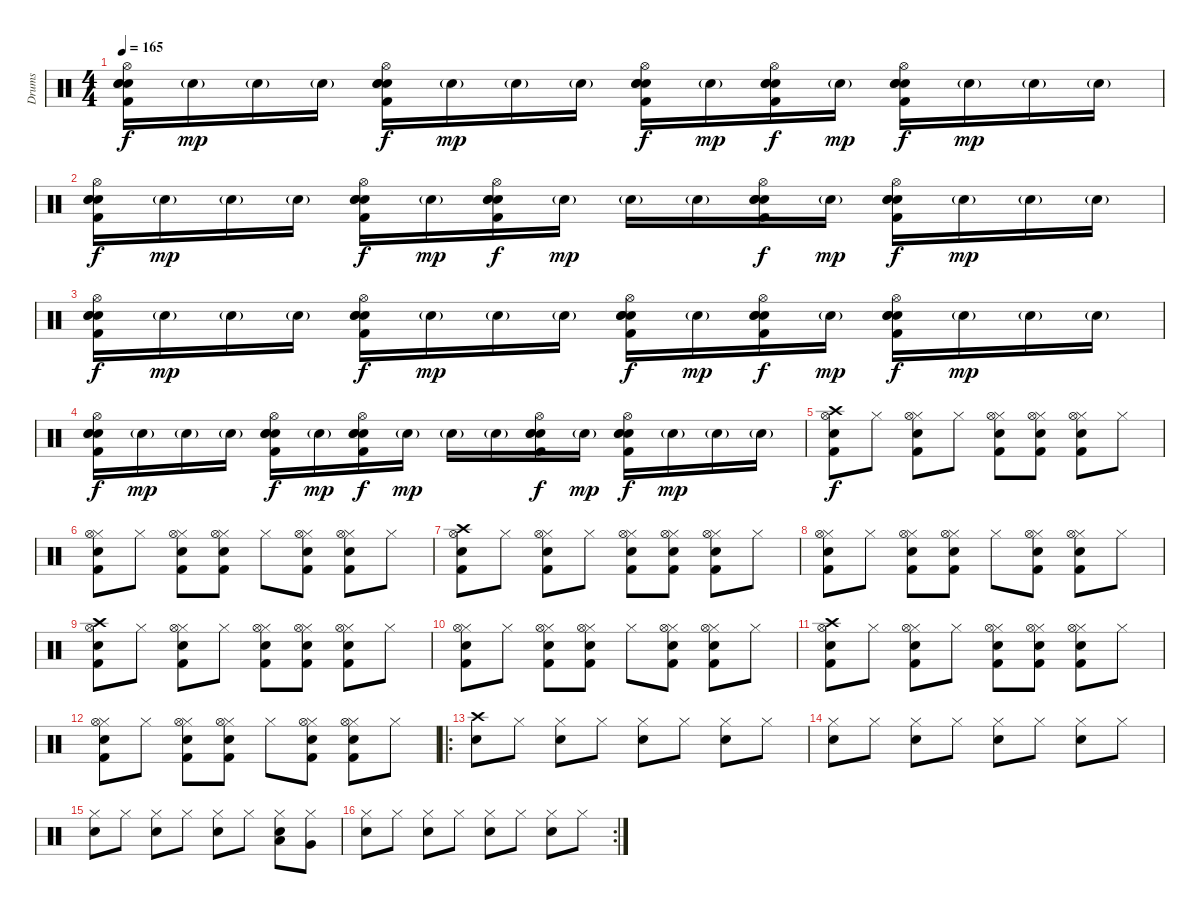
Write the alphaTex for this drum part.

\track ("Drums" "Drums") {instrument percussion}
\staff {score}
\articulation defaults
\ts (4 4)
\tempo 165
\clef neutral
\ks c
("Electric Snare (hit)" "Electric Snare (hit)" "Kick (hit) 2" "Snare (hit) 2" "Hi-Hat (open)").16{dy f} "Electric Snare (hit)"{g}.16{dy mp} "Electric Snare (hit)"{g}.16 "Electric Snare (hit)"{g}.16 ("Electric Snare (hit)" "Electric Snare (hit)" "Kick (hit) 2" "Snare (hit) 2" "Hi-Hat (open)").16{dy f} "Electric Snare (hit)"{g}.16{dy mp} "Electric Snare (hit)"{g}.16 "Electric Snare (hit)"{g}.16 ("Electric Snare (hit)" "Electric Snare (hit)" "Kick (hit) 2" "Snare (hit) 2" "Hi-Hat (open)").16{dy f} "Electric Snare (hit)"{g}.16{dy mp} ("Electric Snare (hit)" "Electric Snare (hit)" "Kick (hit) 2" "Snare (hit) 2" "Hi-Hat (open)").16{dy f} "Electric Snare (hit)"{g}.16{dy mp} ("Electric Snare (hit)" "Electric Snare (hit)" "Kick (hit) 2" "Snare (hit) 2" "Hi-Hat (open)").16{dy f} "Electric Snare (hit)"{g}.16{dy mp} "Electric Snare (hit)"{g}.16 "Electric Snare (hit)"{g}.16 |
("Electric Snare (hit)" "Electric Snare (hit)" "Kick (hit) 2" "Snare (hit) 2" "Hi-Hat (open)").16{dy f} "Electric Snare (hit)"{g}.16{dy mp} "Electric Snare (hit)"{g}.16 "Electric Snare (hit)"{g}.16 ("Electric Snare (hit)" "Electric Snare (hit)" "Kick (hit) 2" "Snare (hit) 2" "Hi-Hat (open)").16{dy f} "Electric Snare (hit)"{g}.16{dy mp} ("Electric Snare (hit)" "Electric Snare (hit)" "Kick (hit) 2" "Snare (hit) 2" "Hi-Hat (open)").16{dy f} "Electric Snare (hit)"{g}.16{dy mp} "Electric Snare (hit)"{g}.16 "Electric Snare (hit)"{g}.16 ("Electric Snare (hit)" "Electric Snare (hit)" "Kick (hit) 2" "Snare (hit) 2" "Hi-Hat (open)").16{dy f} "Electric Snare (hit)"{g}.16{dy mp} ("Electric Snare (hit)" "Electric Snare (hit)" "Kick (hit) 2" "Snare (hit) 2" "Hi-Hat (open)").16{dy f} "Electric Snare (hit)"{g}.16{dy mp} "Electric Snare (hit)"{g}.16 "Electric Snare (hit)"{g}.16 |
("Electric Snare (hit)" "Electric Snare (hit)" "Kick (hit) 2" "Snare (hit) 2" "Hi-Hat (open)").16{dy f} "Electric Snare (hit)"{g}.16{dy mp} "Electric Snare (hit)"{g}.16 "Electric Snare (hit)"{g}.16 ("Electric Snare (hit)" "Electric Snare (hit)" "Kick (hit) 2" "Snare (hit) 2" "Hi-Hat (open)").16{dy f} "Electric Snare (hit)"{g}.16{dy mp} "Electric Snare (hit)"{g}.16 "Electric Snare (hit)"{g}.16 ("Electric Snare (hit)" "Electric Snare (hit)" "Kick (hit) 2" "Snare (hit) 2" "Hi-Hat (open)").16{dy f} "Electric Snare (hit)"{g}.16{dy mp} ("Electric Snare (hit)" "Electric Snare (hit)" "Kick (hit) 2" "Snare (hit) 2" "Hi-Hat (open)").16{dy f} "Electric Snare (hit)"{g}.16{dy mp} ("Electric Snare (hit)" "Electric Snare (hit)" "Kick (hit) 2" "Snare (hit) 2" "Hi-Hat (open)").16{dy f} "Electric Snare (hit)"{g}.16{dy mp} "Electric Snare (hit)"{g}.16 "Electric Snare (hit)"{g}.16 |
("Electric Snare (hit)" "Electric Snare (hit)" "Kick (hit) 2" "Snare (hit) 2" "Hi-Hat (open)").16{dy f} "Electric Snare (hit)"{g}.16{dy mp} "Electric Snare (hit)"{g}.16 "Electric Snare (hit)"{g}.16 ("Electric Snare (hit)" "Electric Snare (hit)" "Kick (hit) 2" "Snare (hit) 2" "Hi-Hat (open)").16{dy f} "Electric Snare (hit)"{g}.16{dy mp} ("Electric Snare (hit)" "Electric Snare (hit)" "Kick (hit) 2" "Snare (hit) 2" "Hi-Hat (open)").16{dy f} "Electric Snare (hit)"{g}.16{dy mp} "Electric Snare (hit)"{g}.16 "Electric Snare (hit)"{g}.16 ("Electric Snare (hit)" "Electric Snare (hit)" "Kick (hit) 2" "Snare (hit) 2" "Hi-Hat (open)").16{dy f} "Electric Snare (hit)"{g}.16{dy mp} ("Electric Snare (hit)" "Electric Snare (hit)" "Kick (hit) 2" "Snare (hit) 2" "Hi-Hat (open)").16{dy f} "Electric Snare (hit)"{g}.16{dy mp} "Electric Snare (hit)"{g}.16 "Electric Snare (hit)"{g}.16 |
("Crash high (hit)" "Electric Snare (hit)" "Kick (hit) 2" "Hi-Hat (open)").8{dy f} "Hi-Hat (closed)".8 ("Hi-Hat (closed)" "Electric Snare (hit)" "Kick (hit) 2" "Hi-Hat (open)").8 "Hi-Hat (closed)".8 ("Hi-Hat (closed)" "Electric Snare (hit)" "Kick (hit) 2" "Hi-Hat (open)").8 ("Hi-Hat (closed)" "Electric Snare (hit)" "Kick (hit) 2" "Hi-Hat (open)").8 ("Hi-Hat (closed)" "Electric Snare (hit)" "Kick (hit) 2" "Hi-Hat (open)").8 "Hi-Hat (closed)".8 |
("Hi-Hat (closed)" "Electric Snare (hit)" "Kick (hit) 2" "Hi-Hat (open)").8 "Hi-Hat (closed)".8 ("Hi-Hat (closed)" "Electric Snare (hit)" "Kick (hit) 2" "Hi-Hat (open)").8 ("Hi-Hat (closed)" "Electric Snare (hit)" "Kick (hit) 2" "Hi-Hat (open)").8 "Hi-Hat (closed)".8 ("Hi-Hat (closed)" "Electric Snare (hit)" "Kick (hit) 2" "Hi-Hat (open)").8 ("Hi-Hat (closed)" "Electric Snare (hit)" "Kick (hit) 2" "Hi-Hat (open)").8 "Hi-Hat (closed)".8 |
("Crash high (hit)" "Electric Snare (hit)" "Kick (hit) 2" "Hi-Hat (open)").8 "Hi-Hat (closed)".8 ("Hi-Hat (closed)" "Electric Snare (hit)" "Kick (hit) 2" "Hi-Hat (open)").8 "Hi-Hat (closed)".8 ("Hi-Hat (closed)" "Electric Snare (hit)" "Kick (hit) 2" "Hi-Hat (open)").8 ("Hi-Hat (closed)" "Electric Snare (hit)" "Kick (hit) 2" "Hi-Hat (open)").8 ("Hi-Hat (closed)" "Electric Snare (hit)" "Kick (hit) 2" "Hi-Hat (open)").8 "Hi-Hat (closed)".8 |
("Hi-Hat (closed)" "Electric Snare (hit)" "Kick (hit) 2" "Hi-Hat (open)").8 "Hi-Hat (closed)".8 ("Hi-Hat (closed)" "Electric Snare (hit)" "Kick (hit) 2" "Hi-Hat (open)").8 ("Hi-Hat (closed)" "Electric Snare (hit)" "Kick (hit) 2" "Hi-Hat (open)").8 "Hi-Hat (closed)".8 ("Hi-Hat (closed)" "Electric Snare (hit)" "Kick (hit) 2" "Hi-Hat (open)").8 ("Hi-Hat (closed)" "Electric Snare (hit)" "Kick (hit) 2" "Hi-Hat (open)").8 "Hi-Hat (closed)".8 |
("Crash high (hit)" "Electric Snare (hit)" "Kick (hit) 2" "Hi-Hat (open)").8 "Hi-Hat (closed)".8 ("Hi-Hat (closed)" "Electric Snare (hit)" "Kick (hit) 2" "Hi-Hat (open)").8 "Hi-Hat (closed)".8 ("Hi-Hat (closed)" "Electric Snare (hit)" "Kick (hit) 2" "Hi-Hat (open)").8 ("Hi-Hat (closed)" "Electric Snare (hit)" "Kick (hit) 2" "Hi-Hat (open)").8 ("Hi-Hat (closed)" "Electric Snare (hit)" "Kick (hit) 2" "Hi-Hat (open)").8 "Hi-Hat (closed)".8 |
("Hi-Hat (closed)" "Electric Snare (hit)" "Kick (hit) 2" "Hi-Hat (open)").8 "Hi-Hat (closed)".8 ("Hi-Hat (closed)" "Electric Snare (hit)" "Kick (hit) 2" "Hi-Hat (open)").8 ("Hi-Hat (closed)" "Electric Snare (hit)" "Kick (hit) 2" "Hi-Hat (open)").8 "Hi-Hat (closed)".8 ("Hi-Hat (closed)" "Electric Snare (hit)" "Kick (hit) 2" "Hi-Hat (open)").8 ("Hi-Hat (closed)" "Electric Snare (hit)" "Kick (hit) 2" "Hi-Hat (open)").8 "Hi-Hat (closed)".8 |
("Crash high (hit)" "Electric Snare (hit)" "Kick (hit) 2" "Hi-Hat (open)").8 "Hi-Hat (closed)".8 ("Hi-Hat (closed)" "Electric Snare (hit)" "Kick (hit) 2" "Hi-Hat (open)").8 "Hi-Hat (closed)".8 ("Hi-Hat (closed)" "Electric Snare (hit)" "Kick (hit) 2" "Hi-Hat (open)").8 ("Hi-Hat (closed)" "Electric Snare (hit)" "Kick (hit) 2" "Hi-Hat (open)").8 ("Hi-Hat (closed)" "Electric Snare (hit)" "Kick (hit) 2" "Hi-Hat (open)").8 "Hi-Hat (closed)".8 |
("Hi-Hat (closed)" "Electric Snare (hit)" "Kick (hit) 2" "Hi-Hat (open)").8 "Hi-Hat (closed)".8 ("Hi-Hat (closed)" "Electric Snare (hit)" "Kick (hit) 2" "Hi-Hat (open)").8 ("Hi-Hat (closed)" "Electric Snare (hit)" "Kick (hit) 2" "Hi-Hat (open)").8 "Hi-Hat (closed)".8 ("Hi-Hat (closed)" "Electric Snare (hit)" "Kick (hit) 2" "Hi-Hat (open)").8 ("Hi-Hat (closed)" "Electric Snare (hit)" "Kick (hit) 2" "Hi-Hat (open)").8 "Hi-Hat (closed)".8 |
\ro
("Crash high (hit)" "Electric Snare (hit)").8 "Hi-Hat (closed)".8 ("Hi-Hat (closed)" "Electric Snare (hit)").8 "Hi-Hat (closed)".8 ("Hi-Hat (closed)" "Electric Snare (hit)").8 "Hi-Hat (closed)".8 ("Hi-Hat (closed)" "Electric Snare (hit)").8 "Hi-Hat (closed)".8 |
("Hi-Hat (closed)" "Electric Snare (hit)").8 "Hi-Hat (closed)".8 ("Hi-Hat (closed)" "Electric Snare (hit)").8 "Hi-Hat (closed)".8 ("Hi-Hat (closed)" "Electric Snare (hit)").8 "Hi-Hat (closed)".8 ("Hi-Hat (closed)" "Electric Snare (hit)").8 "Hi-Hat (closed)".8 |
("Hi-Hat (closed)" "Electric Snare (hit)").8 "Hi-Hat (closed)".8 ("Hi-Hat (closed)" "Electric Snare (hit)").8 "Hi-Hat (closed)".8 ("Hi-Hat (closed)" "Electric Snare (hit)").8 "Hi-Hat (closed)".8 ("Hi-Hat (closed)" "Electric Snare (hit)" "Low Floor Tom (hit)").8 ("Hi-Hat (closed)" "Very Low Tom (hit)").8 |
\rc 2
("Hi-Hat (closed)" "Electric Snare (hit)").8 "Hi-Hat (closed)".8 ("Hi-Hat (closed)" "Electric Snare (hit)").8 "Hi-Hat (closed)".8 ("Hi-Hat (closed)" "Electric Snare (hit)").8 "Hi-Hat (closed)".8 ("Hi-Hat (closed)" "Electric Snare (hit)").8 "Hi-Hat (closed)".8
